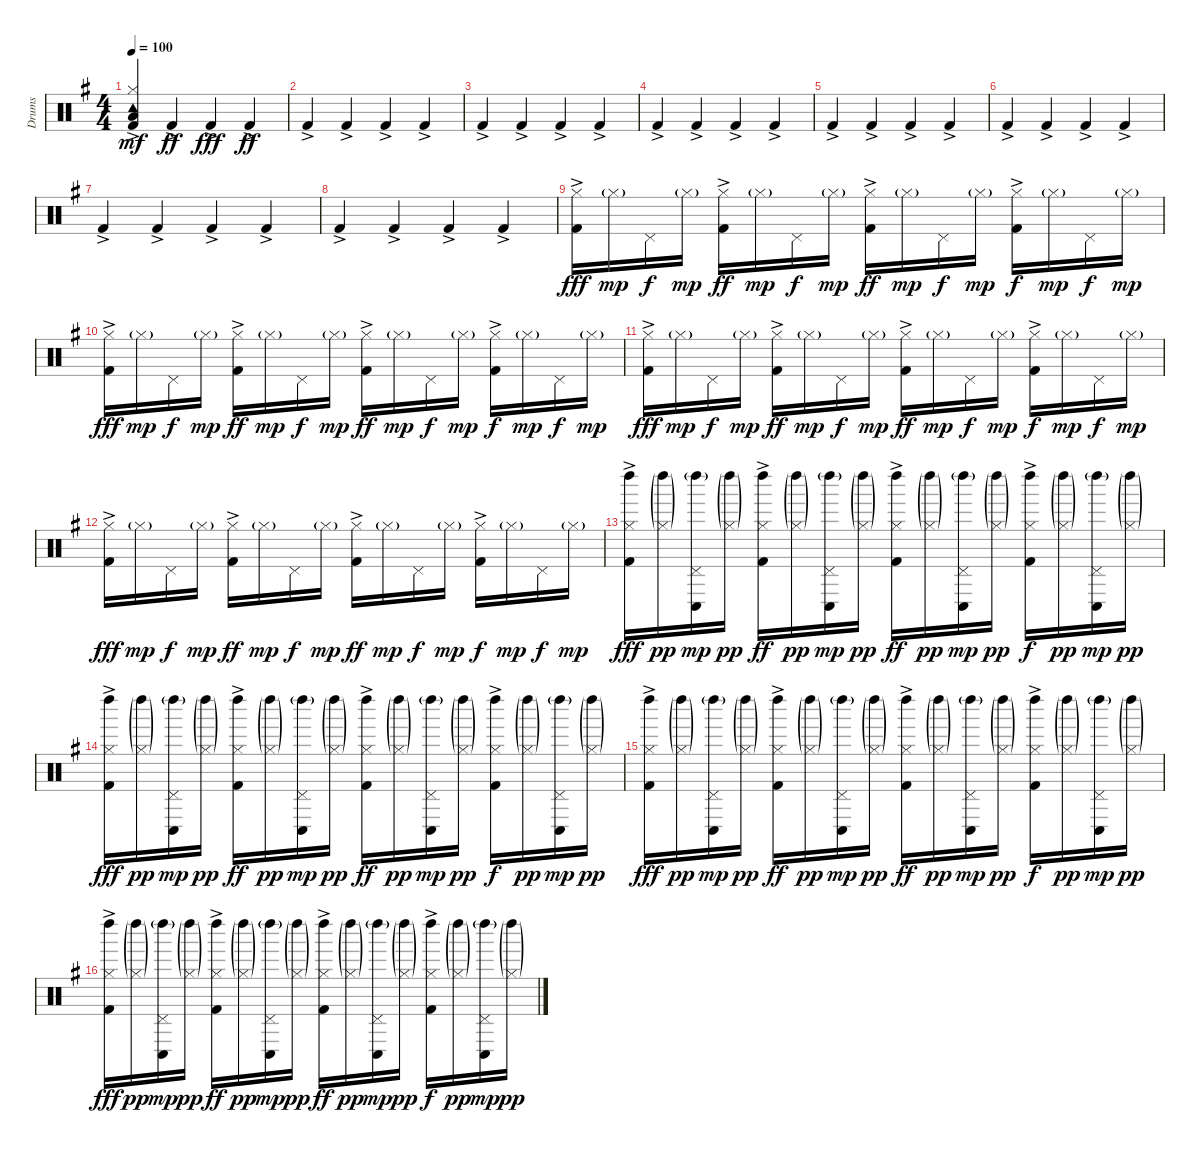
\track ("Drums" "Drums") {instrument percussion}
\staff {score}
\articulation defaults
\ts (4 4)
\tempo 100
\clef neutral
\ks g
("Kick (hit) 2"{ac} "Low Floor Tom (hit)" "Hi-Hat (closed)" "Tambourine (hit)").4{dy mf} "Kick (hit) 2"{ac}.4{dy ff} "Kick (hit) 2"{ac}.4{dy fff} "Kick (hit) 2"{ac}.4{dy ff} |
"Kick (hit) 2"{ac}.4 "Kick (hit) 2"{ac}.4 "Kick (hit) 2"{ac}.4 "Kick (hit) 2"{ac}.4 |
"Kick (hit) 2"{ac}.4 "Kick (hit) 2"{ac}.4 "Kick (hit) 2"{ac}.4 "Kick (hit) 2"{ac}.4 |
"Kick (hit) 2"{ac}.4 "Kick (hit) 2"{ac}.4 "Kick (hit) 2"{ac}.4 "Kick (hit) 2"{ac}.4 |
"Kick (hit) 2"{ac}.4 "Kick (hit) 2"{ac}.4 "Kick (hit) 2"{ac}.4 "Kick (hit) 2"{ac}.4 |
"Kick (hit) 2"{ac}.4 "Kick (hit) 2"{ac}.4 "Kick (hit) 2"{ac}.4 "Kick (hit) 2"{ac}.4 |
"Kick (hit) 2"{ac}.4 "Kick (hit) 2"{ac}.4 "Kick (hit) 2"{ac}.4 "Kick (hit) 2"{ac}.4 |
"Kick (hit) 2"{ac}.4 "Kick (hit) 2"{ac}.4 "Kick (hit) 2"{ac}.4 "Kick (hit) 2"{ac}.4 |
("Kick (hit) 2"{ac} "Hi-Hat (closed)").16{dy fff} "Hi-Hat (closed)"{g}.16{dy mp} "Pedal Hi-Hat (hit)".16{dy f} "Hi-Hat (closed)"{g}.16{dy mp} ("Kick (hit) 2"{ac} "Hi-Hat (closed)").16{dy ff} "Hi-Hat (closed)"{g}.16{dy mp} "Pedal Hi-Hat (hit)".16{dy f} "Hi-Hat (closed)"{g}.16{dy mp} ("Kick (hit) 2"{ac} "Hi-Hat (closed)").16{dy ff} "Hi-Hat (closed)"{g}.16{dy mp} "Pedal Hi-Hat (hit)".16{dy f} "Hi-Hat (closed)"{g}.16{dy mp} ("Kick (hit) 2"{ac} "Hi-Hat (closed)").16{dy f} "Hi-Hat (closed)"{g}.16{dy mp} "Pedal Hi-Hat (hit)".16{dy f} "Hi-Hat (closed)"{g}.16{dy mp} |
("Kick (hit) 2"{ac} "Hi-Hat (closed)").16{dy fff} "Hi-Hat (closed)"{g}.16{dy mp} "Pedal Hi-Hat (hit)".16{dy f} "Hi-Hat (closed)"{g}.16{dy mp} ("Kick (hit) 2"{ac} "Hi-Hat (closed)").16{dy ff} "Hi-Hat (closed)"{g}.16{dy mp} "Pedal Hi-Hat (hit)".16{dy f} "Hi-Hat (closed)"{g}.16{dy mp} ("Kick (hit) 2"{ac} "Hi-Hat (closed)").16{dy ff} "Hi-Hat (closed)"{g}.16{dy mp} "Pedal Hi-Hat (hit)".16{dy f} "Hi-Hat (closed)"{g}.16{dy mp} ("Kick (hit) 2"{ac} "Hi-Hat (closed)").16{dy f} "Hi-Hat (closed)"{g}.16{dy mp} "Pedal Hi-Hat (hit)".16{dy f} "Hi-Hat (closed)"{g}.16{dy mp} |
("Kick (hit) 2"{ac} "Hi-Hat (closed)").16{dy fff} "Hi-Hat (closed)"{g}.16{dy mp} "Pedal Hi-Hat (hit)".16{dy f} "Hi-Hat (closed)"{g}.16{dy mp} ("Kick (hit) 2"{ac} "Hi-Hat (closed)").16{dy ff} "Hi-Hat (closed)"{g}.16{dy mp} "Pedal Hi-Hat (hit)".16{dy f} "Hi-Hat (closed)"{g}.16{dy mp} ("Kick (hit) 2"{ac} "Hi-Hat (closed)").16{dy ff} "Hi-Hat (closed)"{g}.16{dy mp} "Pedal Hi-Hat (hit)".16{dy f} "Hi-Hat (closed)"{g}.16{dy mp} ("Kick (hit) 2"{ac} "Hi-Hat (closed)").16{dy f} "Hi-Hat (closed)"{g}.16{dy mp} "Pedal Hi-Hat (hit)".16{dy f} "Hi-Hat (closed)"{g}.16{dy mp} |
("Kick (hit) 2"{ac} "Hi-Hat (closed)").16{dy fff} "Hi-Hat (closed)"{g}.16{dy mp} "Pedal Hi-Hat (hit)".16{dy f} "Hi-Hat (closed)"{g}.16{dy mp} ("Kick (hit) 2"{ac} "Hi-Hat (closed)").16{dy ff} "Hi-Hat (closed)"{g}.16{dy mp} "Pedal Hi-Hat (hit)".16{dy f} "Hi-Hat (closed)"{g}.16{dy mp} ("Kick (hit) 2"{ac} "Hi-Hat (closed)").16{dy ff} "Hi-Hat (closed)"{g}.16{dy mp} "Pedal Hi-Hat (hit)".16{dy f} "Hi-Hat (closed)"{g}.16{dy mp} ("Kick (hit) 2"{ac} "Hi-Hat (closed)").16{dy f} "Hi-Hat (closed)"{g}.16{dy mp} "Pedal Hi-Hat (hit)".16{dy f} "Hi-Hat (closed)"{g}.16{dy mp} |
("Kick (hit) 2"{ac} "Hi-Hat (closed)" "Left Maraca (hit)").16{dy fff} ("Hi-Hat (closed)"{g} "Left Maraca (hit)"{g}).16{dy pp} ("Pedal Hi-Hat (hit)" "Conga low (hit)" "Left Maraca (hit)"{g}).16{dy mp} ("Hi-Hat (closed)"{g} "Left Maraca (hit)"{g}).16{dy pp} ("Kick (hit) 2"{ac} "Hi-Hat (closed)" "Left Maraca (hit)").16{dy ff} ("Hi-Hat (closed)"{g} "Left Maraca (hit)"{g}).16{dy pp} ("Pedal Hi-Hat (hit)" "Conga low (hit)" "Left Maraca (hit)"{g}).16{dy mp} ("Hi-Hat (closed)"{g} "Left Maraca (hit)"{g}).16{dy pp} ("Kick (hit) 2"{ac} "Hi-Hat (closed)" "Left Maraca (hit)").16{dy ff} ("Hi-Hat (closed)"{g} "Left Maraca (hit)"{g}).16{dy pp} ("Pedal Hi-Hat (hit)" "Conga low (hit)" "Left Maraca (hit)"{g}).16{dy mp} ("Hi-Hat (closed)"{g} "Left Maraca (hit)"{g}).16{dy pp} ("Kick (hit) 2"{ac} "Hi-Hat (closed)" "Left Maraca (hit)").16{dy f} ("Hi-Hat (closed)"{g} "Left Maraca (hit)"{g}).16{dy pp} ("Pedal Hi-Hat (hit)" "Conga low (hit)" "Left Maraca (hit)"{g}).16{dy mp} ("Hi-Hat (closed)"{g} "Left Maraca (hit)"{g}).16{dy pp} |
("Kick (hit) 2"{ac} "Hi-Hat (closed)" "Left Maraca (hit)").16{dy fff} ("Hi-Hat (closed)"{g} "Left Maraca (hit)"{g}).16{dy pp} ("Pedal Hi-Hat (hit)" "Conga low (hit)" "Left Maraca (hit)"{g}).16{dy mp} ("Hi-Hat (closed)"{g} "Left Maraca (hit)"{g}).16{dy pp} ("Kick (hit) 2"{ac} "Hi-Hat (closed)" "Left Maraca (hit)").16{dy ff} ("Hi-Hat (closed)"{g} "Left Maraca (hit)"{g}).16{dy pp} ("Pedal Hi-Hat (hit)" "Conga low (hit)" "Left Maraca (hit)"{g}).16{dy mp} ("Hi-Hat (closed)"{g} "Left Maraca (hit)"{g}).16{dy pp} ("Kick (hit) 2"{ac} "Hi-Hat (closed)" "Left Maraca (hit)").16{dy ff} ("Hi-Hat (closed)"{g} "Left Maraca (hit)"{g}).16{dy pp} ("Pedal Hi-Hat (hit)" "Conga low (hit)" "Left Maraca (hit)"{g}).16{dy mp} ("Hi-Hat (closed)"{g} "Left Maraca (hit)"{g}).16{dy pp} ("Kick (hit) 2"{ac} "Hi-Hat (closed)" "Left Maraca (hit)").16{dy f} ("Hi-Hat (closed)"{g} "Left Maraca (hit)"{g}).16{dy pp} ("Pedal Hi-Hat (hit)" "Conga low (hit)" "Left Maraca (hit)"{g}).16{dy mp} ("Hi-Hat (closed)"{g} "Left Maraca (hit)"{g}).16{dy pp} |
("Kick (hit) 2"{ac} "Hi-Hat (closed)" "Left Maraca (hit)").16{dy fff} ("Hi-Hat (closed)"{g} "Left Maraca (hit)"{g}).16{dy pp} ("Pedal Hi-Hat (hit)" "Conga low (hit)" "Left Maraca (hit)"{g}).16{dy mp} ("Hi-Hat (closed)"{g} "Left Maraca (hit)"{g}).16{dy pp} ("Kick (hit) 2"{ac} "Hi-Hat (closed)" "Left Maraca (hit)").16{dy ff} ("Hi-Hat (closed)"{g} "Left Maraca (hit)"{g}).16{dy pp} ("Pedal Hi-Hat (hit)" "Conga low (hit)" "Left Maraca (hit)"{g}).16{dy mp} ("Hi-Hat (closed)"{g} "Left Maraca (hit)"{g}).16{dy pp} ("Kick (hit) 2"{ac} "Hi-Hat (closed)" "Left Maraca (hit)").16{dy ff} ("Hi-Hat (closed)"{g} "Left Maraca (hit)"{g}).16{dy pp} ("Pedal Hi-Hat (hit)" "Conga low (hit)" "Left Maraca (hit)"{g}).16{dy mp} ("Hi-Hat (closed)"{g} "Left Maraca (hit)"{g}).16{dy pp} ("Kick (hit) 2"{ac} "Hi-Hat (closed)" "Left Maraca (hit)").16{dy f} ("Hi-Hat (closed)"{g} "Left Maraca (hit)"{g}).16{dy pp} ("Pedal Hi-Hat (hit)" "Conga low (hit)" "Left Maraca (hit)"{g}).16{dy mp} ("Hi-Hat (closed)"{g} "Left Maraca (hit)"{g}).16{dy pp} |
("Kick (hit) 2"{ac} "Hi-Hat (closed)" "Left Maraca (hit)").16{dy fff} ("Hi-Hat (closed)"{g} "Left Maraca (hit)"{g}).16{dy pp} ("Pedal Hi-Hat (hit)" "Conga low (hit)" "Left Maraca (hit)"{g}).16{dy mp} ("Hi-Hat (closed)"{g} "Left Maraca (hit)"{g}).16{dy pp} ("Kick (hit) 2"{ac} "Hi-Hat (closed)" "Left Maraca (hit)").16{dy ff} ("Hi-Hat (closed)"{g} "Left Maraca (hit)"{g}).16{dy pp} ("Pedal Hi-Hat (hit)" "Conga low (hit)" "Left Maraca (hit)"{g}).16{dy mp} ("Hi-Hat (closed)"{g} "Left Maraca (hit)"{g}).16{dy pp} ("Kick (hit) 2"{ac} "Hi-Hat (closed)" "Left Maraca (hit)").16{dy ff} ("Hi-Hat (closed)"{g} "Left Maraca (hit)"{g}).16{dy pp} ("Pedal Hi-Hat (hit)" "Conga low (hit)" "Left Maraca (hit)"{g}).16{dy mp} ("Hi-Hat (closed)"{g} "Left Maraca (hit)"{g}).16{dy pp} ("Kick (hit) 2"{ac} "Hi-Hat (closed)" "Left Maraca (hit)").16{dy f} ("Hi-Hat (closed)"{g} "Left Maraca (hit)"{g}).16{dy pp} ("Pedal Hi-Hat (hit)" "Conga low (hit)" "Left Maraca (hit)"{g}).16{dy mp} ("Hi-Hat (closed)"{g} "Left Maraca (hit)"{g}).16{dy pp}
